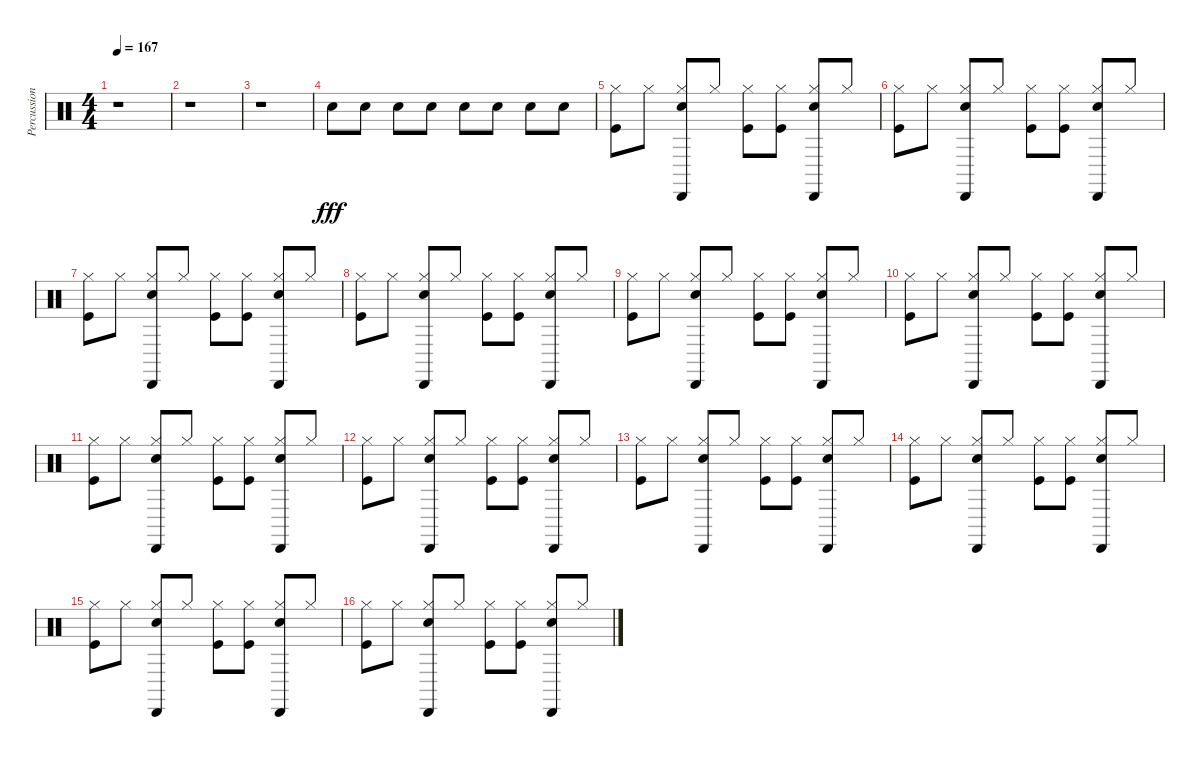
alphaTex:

\track ("Percussion" "Percussion") {instrument percussion}
\staff {score}
\articulation defaults
\ts (4 4)
\tempo 167
\clef neutral
\ks c
r.1{dy fff} |
r.1 |
r.1 |
"Snare (hit) 2".8 "Snare (hit) 2".8 "Snare (hit) 2".8 "Snare (hit) 2".8 "Snare (hit) 2".8 "Snare (hit) 2".8 "Snare (hit) 2".8 "Snare (hit) 2".8 |
("Hi-Hat (closed)" "Kick (hit)").8 "Hi-Hat (closed)".8 ("Hi-Hat (closed)" "Cabasa (hit)" "Snare (hit) 2").8 "Hi-Hat (closed)".8 ("Hi-Hat (closed)" "Kick (hit)").8 ("Hi-Hat (closed)" "Kick (hit)").8 ("Hi-Hat (closed)" "Cabasa (hit)" "Snare (hit) 2").8 "Hi-Hat (closed)".8 |
("Hi-Hat (closed)" "Kick (hit)").8 "Hi-Hat (closed)".8 ("Hi-Hat (closed)" "Cabasa (hit)" "Snare (hit) 2").8 "Hi-Hat (closed)".8 ("Hi-Hat (closed)" "Kick (hit)").8 ("Hi-Hat (closed)" "Kick (hit)").8 ("Hi-Hat (closed)" "Cabasa (hit)" "Snare (hit) 2").8 "Hi-Hat (closed)".8 |
("Hi-Hat (closed)" "Kick (hit)").8 "Hi-Hat (closed)".8 ("Hi-Hat (closed)" "Cabasa (hit)" "Snare (hit) 2").8 "Hi-Hat (closed)".8 ("Hi-Hat (closed)" "Kick (hit)").8 ("Hi-Hat (closed)" "Kick (hit)").8 ("Hi-Hat (closed)" "Cabasa (hit)" "Snare (hit) 2").8 "Hi-Hat (closed)".8 |
("Hi-Hat (closed)" "Kick (hit)").8 "Hi-Hat (closed)".8 ("Hi-Hat (closed)" "Cabasa (hit)" "Snare (hit) 2").8 "Hi-Hat (closed)".8 ("Hi-Hat (closed)" "Kick (hit)").8 ("Hi-Hat (closed)" "Kick (hit)").8 ("Hi-Hat (closed)" "Cabasa (hit)" "Snare (hit) 2").8 "Hi-Hat (closed)".8 |
("Hi-Hat (closed)" "Kick (hit)").8 "Hi-Hat (closed)".8 ("Hi-Hat (closed)" "Cabasa (hit)" "Snare (hit) 2").8 "Hi-Hat (closed)".8 ("Hi-Hat (closed)" "Kick (hit)").8 ("Hi-Hat (closed)" "Kick (hit)").8 ("Hi-Hat (closed)" "Cabasa (hit)" "Snare (hit) 2").8 "Hi-Hat (closed)".8 |
("Hi-Hat (closed)" "Kick (hit)").8 "Hi-Hat (closed)".8 ("Hi-Hat (closed)" "Cabasa (hit)" "Snare (hit) 2").8 "Hi-Hat (closed)".8 ("Hi-Hat (closed)" "Kick (hit)").8 ("Hi-Hat (closed)" "Kick (hit)").8 ("Hi-Hat (closed)" "Cabasa (hit)" "Snare (hit) 2").8 "Hi-Hat (closed)".8 |
("Hi-Hat (closed)" "Kick (hit)").8 "Hi-Hat (closed)".8 ("Hi-Hat (closed)" "Cabasa (hit)" "Snare (hit) 2").8 "Hi-Hat (closed)".8 ("Hi-Hat (closed)" "Kick (hit)").8 ("Hi-Hat (closed)" "Kick (hit)").8 ("Hi-Hat (closed)" "Cabasa (hit)" "Snare (hit) 2").8 "Hi-Hat (closed)".8 |
("Hi-Hat (closed)" "Kick (hit)").8 "Hi-Hat (closed)".8 ("Hi-Hat (closed)" "Cabasa (hit)" "Snare (hit) 2").8 "Hi-Hat (closed)".8 ("Hi-Hat (closed)" "Kick (hit)").8 ("Hi-Hat (closed)" "Kick (hit)").8 ("Hi-Hat (closed)" "Cabasa (hit)" "Snare (hit) 2").8 "Hi-Hat (closed)".8 |
("Hi-Hat (closed)" "Kick (hit)").8 "Hi-Hat (closed)".8 ("Hi-Hat (closed)" "Cabasa (hit)" "Snare (hit) 2").8 "Hi-Hat (closed)".8 ("Hi-Hat (closed)" "Kick (hit)").8 ("Hi-Hat (closed)" "Kick (hit)").8 ("Hi-Hat (closed)" "Cabasa (hit)" "Snare (hit) 2").8 "Hi-Hat (closed)".8 |
("Hi-Hat (closed)" "Kick (hit)").8 "Hi-Hat (closed)".8 ("Hi-Hat (closed)" "Cabasa (hit)" "Snare (hit) 2").8 "Hi-Hat (closed)".8 ("Hi-Hat (closed)" "Kick (hit)").8 ("Hi-Hat (closed)" "Kick (hit)").8 ("Hi-Hat (closed)" "Cabasa (hit)" "Snare (hit) 2").8 "Hi-Hat (closed)".8 |
("Hi-Hat (closed)" "Kick (hit)").8 "Hi-Hat (closed)".8 ("Hi-Hat (closed)" "Cabasa (hit)" "Snare (hit) 2").8 "Hi-Hat (closed)".8 ("Hi-Hat (closed)" "Kick (hit)").8 ("Hi-Hat (closed)" "Kick (hit)").8 ("Hi-Hat (closed)" "Cabasa (hit)" "Snare (hit) 2").8 "Hi-Hat (closed)".8 |
("Hi-Hat (closed)" "Kick (hit)").8 "Hi-Hat (closed)".8 ("Hi-Hat (closed)" "Cabasa (hit)" "Snare (hit) 2").8 "Hi-Hat (closed)".8 ("Hi-Hat (closed)" "Kick (hit)").8 ("Hi-Hat (closed)" "Kick (hit)").8 ("Hi-Hat (closed)" "Cabasa (hit)" "Snare (hit) 2").8 "Hi-Hat (closed)".8
